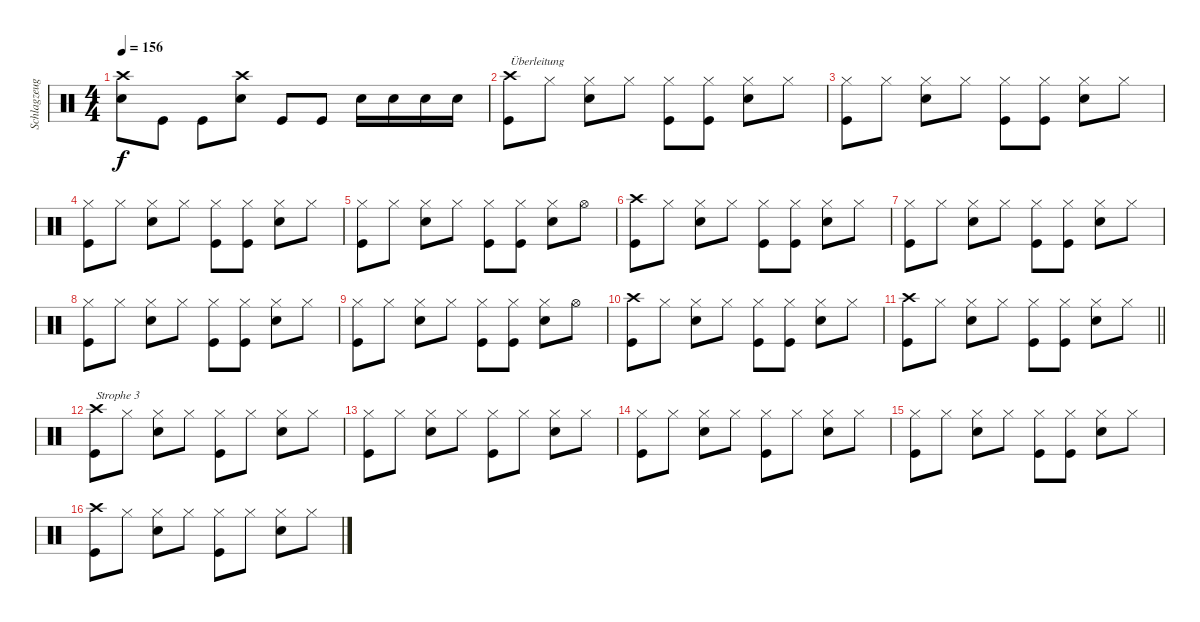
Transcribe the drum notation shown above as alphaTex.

\track ("Schlagzeug" "Schlagzeug") {instrument percussion}
\staff {score}
\articulation defaults
\ts (4 4)
\tempo 156
\clef neutral
\ks c
("Crash high (hit)" "Electric Snare (hit)").8{dy f} "Kick (hit)".8 "Kick (hit)".8 ("Crash high (hit)" "Electric Snare (hit)").8 "Kick (hit)".8 "Kick (hit)".8 "Electric Snare (hit)".16 "Electric Snare (hit)".16 "Electric Snare (hit)".16 "Electric Snare (hit)".16 |
("Crash high (hit)" "Kick (hit)").8{txt "Überleitung"} "Hi-Hat (closed)".8 ("Hi-Hat (closed)" "Electric Snare (hit)").8 "Hi-Hat (closed)".8 ("Hi-Hat (closed)" "Kick (hit)").8 ("Hi-Hat (closed)" "Kick (hit)").8 ("Hi-Hat (closed)" "Electric Snare (hit)").8 "Hi-Hat (closed)".8 |
("Hi-Hat (closed)" "Kick (hit)").8 "Hi-Hat (closed)".8 ("Hi-Hat (closed)" "Electric Snare (hit)").8 "Hi-Hat (closed)".8 ("Hi-Hat (closed)" "Kick (hit)").8 ("Hi-Hat (closed)" "Kick (hit)").8 ("Hi-Hat (closed)" "Electric Snare (hit)").8 "Hi-Hat (closed)".8 |
("Hi-Hat (closed)" "Kick (hit)").8 "Hi-Hat (closed)".8 ("Hi-Hat (closed)" "Electric Snare (hit)").8 "Hi-Hat (closed)".8 ("Hi-Hat (closed)" "Kick (hit)").8 ("Hi-Hat (closed)" "Kick (hit)").8 ("Hi-Hat (closed)" "Electric Snare (hit)").8 "Hi-Hat (closed)".8 |
("Hi-Hat (closed)" "Kick (hit)").8 "Hi-Hat (closed)".8 ("Hi-Hat (closed)" "Electric Snare (hit)").8 "Hi-Hat (closed)".8 ("Hi-Hat (closed)" "Kick (hit)").8 ("Hi-Hat (closed)" "Kick (hit)").8 ("Hi-Hat (closed)" "Electric Snare (hit)").8 "Hi-Hat (open)".8 |
("Crash high (hit)" "Kick (hit)").8 "Hi-Hat (closed)".8 ("Hi-Hat (closed)" "Electric Snare (hit)").8 "Hi-Hat (closed)".8 ("Hi-Hat (closed)" "Kick (hit)").8 ("Hi-Hat (closed)" "Kick (hit)").8 ("Hi-Hat (closed)" "Electric Snare (hit)").8 "Hi-Hat (closed)".8 |
("Hi-Hat (closed)" "Kick (hit)").8 "Hi-Hat (closed)".8 ("Hi-Hat (closed)" "Electric Snare (hit)").8 "Hi-Hat (closed)".8 ("Hi-Hat (closed)" "Kick (hit)").8 ("Hi-Hat (closed)" "Kick (hit)").8 ("Hi-Hat (closed)" "Electric Snare (hit)").8 "Hi-Hat (closed)".8 |
("Hi-Hat (closed)" "Kick (hit)").8 "Hi-Hat (closed)".8 ("Hi-Hat (closed)" "Electric Snare (hit)").8 "Hi-Hat (closed)".8 ("Hi-Hat (closed)" "Kick (hit)").8 ("Hi-Hat (closed)" "Kick (hit)").8 ("Hi-Hat (closed)" "Electric Snare (hit)").8 "Hi-Hat (closed)".8 |
("Hi-Hat (closed)" "Kick (hit)").8 "Hi-Hat (closed)".8 ("Hi-Hat (closed)" "Electric Snare (hit)").8 "Hi-Hat (closed)".8 ("Hi-Hat (closed)" "Kick (hit)").8 ("Hi-Hat (closed)" "Kick (hit)").8 ("Hi-Hat (closed)" "Electric Snare (hit)").8 "Hi-Hat (open)".8 |
("Crash high (hit)" "Kick (hit)").8 "Hi-Hat (closed)".8 ("Hi-Hat (closed)" "Electric Snare (hit)").8 "Hi-Hat (closed)".8 ("Hi-Hat (closed)" "Kick (hit)").8 ("Hi-Hat (closed)" "Kick (hit)").8 ("Hi-Hat (closed)" "Electric Snare (hit)").8 "Hi-Hat (closed)".8 |
\barLineRight lightlight
("Crash high (hit)" "Kick (hit)").8 "Hi-Hat (closed)".8 ("Hi-Hat (closed)" "Electric Snare (hit)").8 "Hi-Hat (closed)".8 ("Hi-Hat (closed)" "Kick (hit)").8 ("Hi-Hat (closed)" "Kick (hit)").8 ("Hi-Hat (closed)" "Electric Snare (hit)").8 "Hi-Hat (closed)".8 |
("Crash high (hit)" "Kick (hit)").8{txt "Strophe 3"} "Hi-Hat (closed)".8 ("Hi-Hat (closed)" "Electric Snare (hit)").8 "Hi-Hat (closed)".8 ("Hi-Hat (closed)" "Kick (hit)").8 "Hi-Hat (closed)".8 ("Hi-Hat (closed)" "Electric Snare (hit)").8 "Hi-Hat (closed)".8 |
("Hi-Hat (closed)" "Kick (hit)").8 "Hi-Hat (closed)".8 ("Hi-Hat (closed)" "Electric Snare (hit)").8 "Hi-Hat (closed)".8 ("Hi-Hat (closed)" "Kick (hit)").8 "Hi-Hat (closed)".8 ("Hi-Hat (closed)" "Electric Snare (hit)").8 "Hi-Hat (closed)".8 |
("Hi-Hat (closed)" "Kick (hit)").8 "Hi-Hat (closed)".8 ("Hi-Hat (closed)" "Electric Snare (hit)").8 "Hi-Hat (closed)".8 ("Hi-Hat (closed)" "Kick (hit)").8 "Hi-Hat (closed)".8 ("Hi-Hat (closed)" "Electric Snare (hit)").8 "Hi-Hat (closed)".8 |
("Hi-Hat (closed)" "Kick (hit)").8 "Hi-Hat (closed)".8 ("Hi-Hat (closed)" "Electric Snare (hit)").8 "Hi-Hat (closed)".8 ("Hi-Hat (closed)" "Kick (hit)").8 ("Hi-Hat (closed)" "Kick (hit)").8 ("Hi-Hat (closed)" "Electric Snare (hit)").8 "Hi-Hat (closed)".8 |
("Crash high (hit)" "Kick (hit)").8 "Hi-Hat (closed)".8 ("Hi-Hat (closed)" "Electric Snare (hit)").8 "Hi-Hat (closed)".8 ("Hi-Hat (closed)" "Kick (hit)").8 "Hi-Hat (closed)".8 ("Hi-Hat (closed)" "Electric Snare (hit)").8 "Hi-Hat (closed)".8
